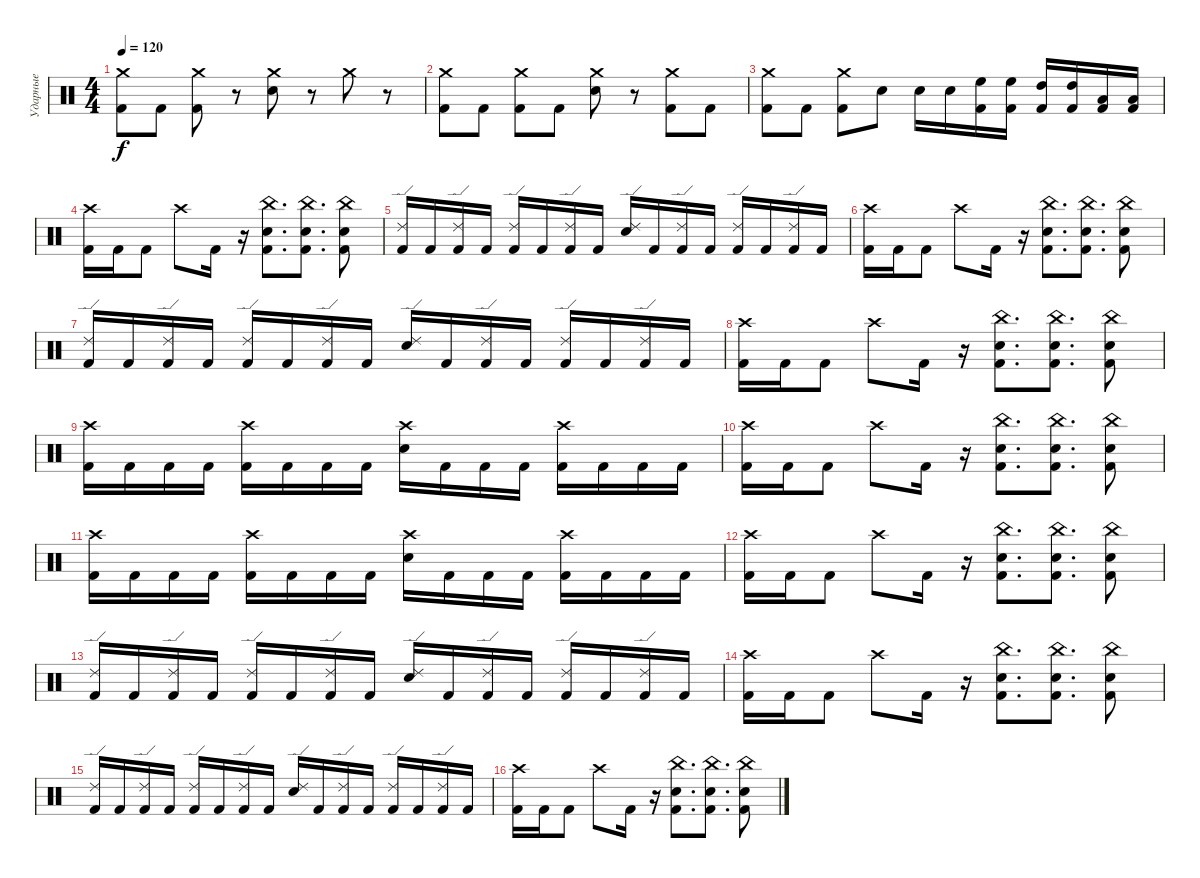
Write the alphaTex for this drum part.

\track ("Ударные" "Ударные") {instrument percussion}
\staff {score}
\articulation defaults
\ts (4 4)
\tempo 120
\clef neutral
\ks c
("Crash medium (hit)" "Kick (hit) 2").8{dy f} "Kick (hit) 2".8 ("Crash medium (hit)" "Kick (hit) 2").8 r.8 ("Crash medium (hit)" "Electric Snare (hit)").8 r.8 "Crash medium (hit)".8 r.8 |
("Crash medium (hit)" "Kick (hit) 2").8 "Kick (hit) 2".8 ("Crash medium (hit)" "Kick (hit) 2").8 "Kick (hit) 2".8 ("Crash medium (hit)" "Electric Snare (hit)").8 r.8 ("Crash medium (hit)" "Kick (hit) 2").8 "Kick (hit) 2".8 |
("Crash medium (hit)" "Kick (hit) 2").8 "Kick (hit) 2".8 ("Crash medium (hit)" "Kick (hit) 2").8 "Electric Snare (hit)".8 "Electric Snare (hit)".16 "Electric Snare (hit)".16 ("High Floor Tom (hit)" "Kick (hit) 2").16 ("High Floor Tom (hit)" "Kick (hit) 2").16 ("High Tom (hit)" "Kick (hit) 2").16 ("High Tom (hit)" "Kick (hit) 2").16 ("Low Tom (hit)" "Kick (hit) 2").16 ("Low Tom (hit)" "Kick (hit) 2").16 |
("Crash high (hit)" "Kick (hit) 2").16 "Kick (hit) 2".16 "Kick (hit) 2".8 "Crash high (hit)".8 "Kick (hit) 2".16 r.16 ("China (hit)" "Electric Snare (hit)" "Kick (hit) 2").8{d} ("China (hit)" "Electric Snare (hit)" "Kick (hit) 2").8{d} ("China (hit)" "Electric Snare (hit)" "Kick (hit) 2").8 |
("Ride (edge) 2" "Kick (hit) 2").16 "Kick (hit) 2".16 ("Ride (edge) 2" "Kick (hit) 2").16 "Kick (hit) 2".16 ("Ride (edge) 2" "Kick (hit) 2").16 "Kick (hit) 2".16 ("Ride (edge) 2" "Kick (hit) 2").16 "Kick (hit) 2".16 ("Ride (edge) 2" "Electric Snare (hit)").16 "Kick (hit) 2".16 ("Ride (edge) 2" "Kick (hit) 2").16 "Kick (hit) 2".16 ("Ride (edge) 2" "Kick (hit) 2").16 "Kick (hit) 2".16 ("Ride (edge) 2" "Kick (hit) 2").16 "Kick (hit) 2".16 |
("Crash high (hit)" "Kick (hit) 2").16 "Kick (hit) 2".16 "Kick (hit) 2".8 "Crash high (hit)".8 "Kick (hit) 2".16 r.16 ("China (hit)" "Electric Snare (hit)" "Kick (hit) 2").8{d} ("China (hit)" "Electric Snare (hit)" "Kick (hit) 2").8{d} ("China (hit)" "Electric Snare (hit)" "Kick (hit) 2").8 |
("Ride (edge) 2" "Kick (hit) 2").16 "Kick (hit) 2".16 ("Ride (edge) 2" "Kick (hit) 2").16 "Kick (hit) 2".16 ("Ride (edge) 2" "Kick (hit) 2").16 "Kick (hit) 2".16 ("Ride (edge) 2" "Kick (hit) 2").16 "Kick (hit) 2".16 ("Ride (edge) 2" "Electric Snare (hit)").16 "Kick (hit) 2".16 ("Ride (edge) 2" "Kick (hit) 2").16 "Kick (hit) 2".16 ("Ride (edge) 2" "Kick (hit) 2").16 "Kick (hit) 2".16 ("Ride (edge) 2" "Kick (hit) 2").16 "Kick (hit) 2".16 |
("Crash high (hit)" "Kick (hit) 2").16 "Kick (hit) 2".16 "Kick (hit) 2".8 "Crash high (hit)".8 "Kick (hit) 2".16 r.16 ("China (hit)" "Electric Snare (hit)" "Kick (hit) 2").8{d} ("China (hit)" "Electric Snare (hit)" "Kick (hit) 2").8{d} ("China (hit)" "Electric Snare (hit)" "Kick (hit) 2").8 |
("Crash high (hit)" "Kick (hit) 2").16 "Kick (hit) 2".16 "Kick (hit) 2".16 "Kick (hit) 2".16 ("Crash high (hit)" "Kick (hit) 2").16 "Kick (hit) 2".16 "Kick (hit) 2".16 "Kick (hit) 2".16 ("Crash high (hit)" "Electric Snare (hit)").16 "Kick (hit) 2".16 "Kick (hit) 2".16 "Kick (hit) 2".16 ("Crash high (hit)" "Kick (hit) 2").16 "Kick (hit) 2".16 "Kick (hit) 2".16 "Kick (hit) 2".16 |
("Crash high (hit)" "Kick (hit) 2").16 "Kick (hit) 2".16 "Kick (hit) 2".8 "Crash high (hit)".8 "Kick (hit) 2".16 r.16 ("China (hit)" "Electric Snare (hit)" "Kick (hit) 2").8{d} ("China (hit)" "Electric Snare (hit)" "Kick (hit) 2").8{d} ("China (hit)" "Electric Snare (hit)" "Kick (hit) 2").8 |
("Crash high (hit)" "Kick (hit) 2").16 "Kick (hit) 2".16 "Kick (hit) 2".16 "Kick (hit) 2".16 ("Crash high (hit)" "Kick (hit) 2").16 "Kick (hit) 2".16 "Kick (hit) 2".16 "Kick (hit) 2".16 ("Crash high (hit)" "Electric Snare (hit)").16 "Kick (hit) 2".16 "Kick (hit) 2".16 "Kick (hit) 2".16 ("Crash high (hit)" "Kick (hit) 2").16 "Kick (hit) 2".16 "Kick (hit) 2".16 "Kick (hit) 2".16 |
("Crash high (hit)" "Kick (hit) 2").16 "Kick (hit) 2".16 "Kick (hit) 2".8 "Crash high (hit)".8 "Kick (hit) 2".16 r.16 ("China (hit)" "Electric Snare (hit)" "Kick (hit) 2").8{d} ("China (hit)" "Electric Snare (hit)" "Kick (hit) 2").8{d} ("China (hit)" "Electric Snare (hit)" "Kick (hit) 2").8 |
("Ride (edge) 2" "Kick (hit) 2").16 "Kick (hit) 2".16 ("Ride (edge) 2" "Kick (hit) 2").16 "Kick (hit) 2".16 ("Ride (edge) 2" "Kick (hit) 2").16 "Kick (hit) 2".16 ("Ride (edge) 2" "Kick (hit) 2").16 "Kick (hit) 2".16 ("Ride (edge) 2" "Electric Snare (hit)").16 "Kick (hit) 2".16 ("Ride (edge) 2" "Kick (hit) 2").16 "Kick (hit) 2".16 ("Ride (edge) 2" "Kick (hit) 2").16 "Kick (hit) 2".16 ("Ride (edge) 2" "Kick (hit) 2").16 "Kick (hit) 2".16 |
("Crash high (hit)" "Kick (hit) 2").16 "Kick (hit) 2".16 "Kick (hit) 2".8 "Crash high (hit)".8 "Kick (hit) 2".16 r.16 ("China (hit)" "Electric Snare (hit)" "Kick (hit) 2").8{d} ("China (hit)" "Electric Snare (hit)" "Kick (hit) 2").8{d} ("China (hit)" "Electric Snare (hit)" "Kick (hit) 2").8 |
("Ride (edge) 2" "Kick (hit) 2").16 "Kick (hit) 2".16 ("Ride (edge) 2" "Kick (hit) 2").16 "Kick (hit) 2".16 ("Ride (edge) 2" "Kick (hit) 2").16 "Kick (hit) 2".16 ("Ride (edge) 2" "Kick (hit) 2").16 "Kick (hit) 2".16 ("Ride (edge) 2" "Electric Snare (hit)").16 "Kick (hit) 2".16 ("Ride (edge) 2" "Kick (hit) 2").16 "Kick (hit) 2".16 ("Ride (edge) 2" "Kick (hit) 2").16 "Kick (hit) 2".16 ("Ride (edge) 2" "Kick (hit) 2").16 "Kick (hit) 2".16 |
("Crash high (hit)" "Kick (hit) 2").16 "Kick (hit) 2".16 "Kick (hit) 2".8 "Crash high (hit)".8 "Kick (hit) 2".16 r.16 ("China (hit)" "Electric Snare (hit)" "Kick (hit) 2").8{d} ("China (hit)" "Electric Snare (hit)" "Kick (hit) 2").8{d} ("China (hit)" "Electric Snare (hit)" "Kick (hit) 2").8
